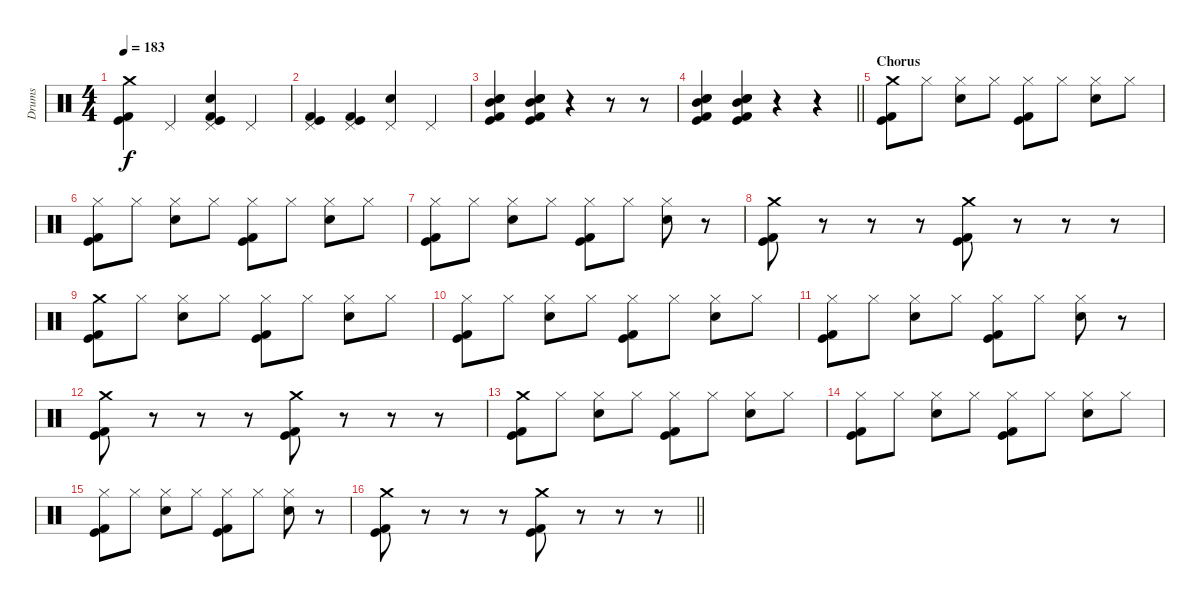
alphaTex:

\track ("Drums" "Drums") {instrument percussion}
\staff
\articulation defaults
\ts (4 4)
\tempo 183
\clef neutral
\ks c
("Crash medium (hit)" "Kick (hit)" "Kick (hit) 2").4{dy f} "Pedal Hi-Hat (hit)".4 ("Pedal Hi-Hat (hit)" "Snare (hit) 2" "Kick (hit)" "Kick (hit) 2").4 "Pedal Hi-Hat (hit)".4 |
("Pedal Hi-Hat (hit)" "Kick (hit)" "Kick (hit) 2").4 ("Pedal Hi-Hat (hit)" "Kick (hit)" "Kick (hit) 2").4 ("Pedal Hi-Hat (hit)" "Snare (hit) 2").4 "Pedal Hi-Hat (hit)".4 |
("Electric Snare (hit)" "Snare (hit) 2" "Mid Tom (hit)" "Kick (hit)" "Kick (hit) 2").4 ("Electric Snare (hit)" "Snare (hit) 2" "Mid Tom (hit)" "Kick (hit)" "Kick (hit) 2").4 r.4 r.8 r.8 |
\barLineRight lightlight
("Electric Snare (hit)" "Snare (hit) 2" "Mid Tom (hit)" "Kick (hit)" "Kick (hit) 2").4 ("Electric Snare (hit)" "Snare (hit) 2" "Mid Tom (hit)" "Kick (hit)" "Kick (hit) 2").4 r.4 r.4 |
\section ("" "Chorus")
("Crash medium (hit)" "Kick (hit)" "Kick (hit) 2").8 "Hi-Hat (closed)".8 ("Hi-Hat (closed)" "Snare (hit) 2").8 "Hi-Hat (closed)".8 ("Hi-Hat (closed)" "Kick (hit)" "Kick (hit) 2").8 "Hi-Hat (closed)".8 ("Hi-Hat (closed)" "Snare (hit) 2").8 "Hi-Hat (closed)".8 |
("Hi-Hat (closed)" "Kick (hit)" "Kick (hit) 2").8 "Hi-Hat (closed)".8 ("Hi-Hat (closed)" "Snare (hit) 2").8 "Hi-Hat (closed)".8 ("Hi-Hat (closed)" "Kick (hit)" "Kick (hit) 2").8 "Hi-Hat (closed)".8 ("Hi-Hat (closed)" "Snare (hit) 2").8 "Hi-Hat (closed)".8 |
("Hi-Hat (closed)" "Kick (hit)" "Kick (hit) 2").8 "Hi-Hat (closed)".8 ("Hi-Hat (closed)" "Snare (hit) 2").8 "Hi-Hat (closed)".8 ("Hi-Hat (closed)" "Kick (hit)" "Kick (hit) 2").8 "Hi-Hat (closed)".8 ("Hi-Hat (closed)" "Snare (hit) 2").8 r.8 |
("Crash medium (hit)" "Kick (hit)" "Kick (hit) 2").8 r.8 r.8 r.8 ("Crash medium (hit)" "Kick (hit)" "Kick (hit) 2").8 r.8 r.8 r.8 |
("Crash medium (hit)" "Kick (hit)" "Kick (hit) 2").8 "Hi-Hat (closed)".8 ("Hi-Hat (closed)" "Snare (hit) 2").8 "Hi-Hat (closed)".8 ("Hi-Hat (closed)" "Kick (hit)" "Kick (hit) 2").8 "Hi-Hat (closed)".8 ("Hi-Hat (closed)" "Snare (hit) 2").8 "Hi-Hat (closed)".8 |
("Hi-Hat (closed)" "Kick (hit)" "Kick (hit) 2").8 "Hi-Hat (closed)".8 ("Hi-Hat (closed)" "Snare (hit) 2").8 "Hi-Hat (closed)".8 ("Hi-Hat (closed)" "Kick (hit)" "Kick (hit) 2").8 "Hi-Hat (closed)".8 ("Hi-Hat (closed)" "Snare (hit) 2").8 "Hi-Hat (closed)".8 |
("Hi-Hat (closed)" "Kick (hit)" "Kick (hit) 2").8 "Hi-Hat (closed)".8 ("Hi-Hat (closed)" "Snare (hit) 2").8 "Hi-Hat (closed)".8 ("Hi-Hat (closed)" "Kick (hit)" "Kick (hit) 2").8 "Hi-Hat (closed)".8 ("Hi-Hat (closed)" "Snare (hit) 2").8 r.8 |
("Crash medium (hit)" "Kick (hit)" "Kick (hit) 2").8 r.8 r.8 r.8 ("Crash medium (hit)" "Kick (hit)" "Kick (hit) 2").8 r.8 r.8 r.8 |
("Crash medium (hit)" "Kick (hit)" "Kick (hit) 2").8 "Hi-Hat (closed)".8 ("Hi-Hat (closed)" "Snare (hit) 2").8 "Hi-Hat (closed)".8 ("Hi-Hat (closed)" "Kick (hit)" "Kick (hit) 2").8 "Hi-Hat (closed)".8 ("Hi-Hat (closed)" "Snare (hit) 2").8 "Hi-Hat (closed)".8 |
("Hi-Hat (closed)" "Kick (hit)" "Kick (hit) 2").8 "Hi-Hat (closed)".8 ("Hi-Hat (closed)" "Snare (hit) 2").8 "Hi-Hat (closed)".8 ("Hi-Hat (closed)" "Kick (hit)" "Kick (hit) 2").8 "Hi-Hat (closed)".8 ("Hi-Hat (closed)" "Snare (hit) 2").8 "Hi-Hat (closed)".8 |
("Hi-Hat (closed)" "Kick (hit)" "Kick (hit) 2").8 "Hi-Hat (closed)".8 ("Hi-Hat (closed)" "Snare (hit) 2").8 "Hi-Hat (closed)".8 ("Hi-Hat (closed)" "Kick (hit)" "Kick (hit) 2").8 "Hi-Hat (closed)".8 ("Hi-Hat (closed)" "Snare (hit) 2").8 r.8 |
\barLineRight lightlight
("Crash medium (hit)" "Kick (hit)" "Kick (hit) 2").8 r.8 r.8 r.8 ("Crash medium (hit)" "Kick (hit)" "Kick (hit) 2").8 r.8 r.8 r.8
